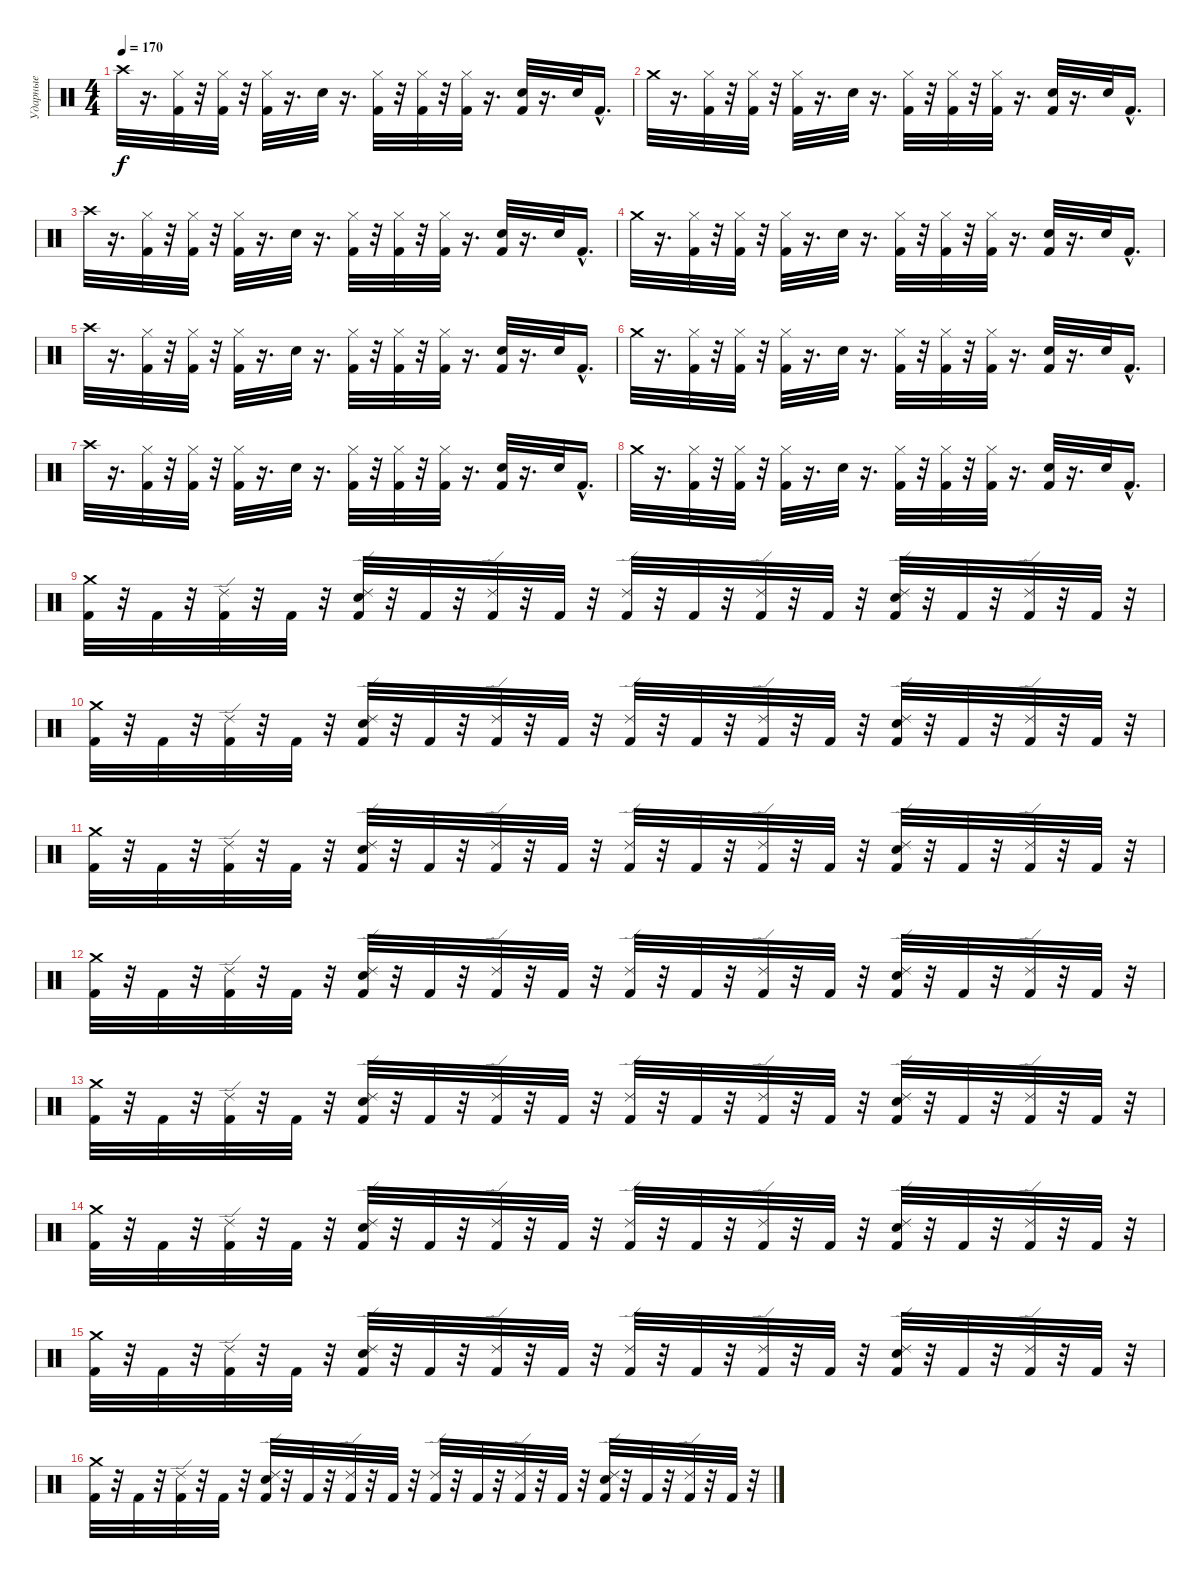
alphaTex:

\track ("Ударные" "Ударные") {instrument percussion}
\staff {score}
\articulation defaults
\ts (4 4)
\tempo 170
\clef neutral
\ks c "Crash high (hit)".32{dy f}
r.16{d} ("Hi-Hat (closed)" "Kick (hit) 2").32 r.32 ("Hi-Hat (closed)" "Kick (hit) 2").32 r.32 ("Hi-Hat (closed)" "Kick (hit) 2").32 r.16{d} "Electric Snare (hit)".32 r.16{d} ("Hi-Hat (closed)" "Kick (hit) 2").32 r.32 ("Hi-Hat (closed)" "Kick (hit) 2").32 r.32 ("Hi-Hat (closed)" "Kick (hit) 2").32 r.16{d} ("Electric Snare (hit)" "Kick (hit) 2").32 r.16{d} "Electric Snare (hit)".32 "Kick (hit) 2"{hac}.16{d} |
"Crash medium (hit)".32 r.16{d} ("Hi-Hat (closed)" "Kick (hit) 2").32 r.32 ("Hi-Hat (closed)" "Kick (hit) 2").32 r.32 ("Hi-Hat (closed)" "Kick (hit) 2").32 r.16{d} "Electric Snare (hit)".32 r.16{d} ("Hi-Hat (closed)" "Kick (hit) 2").32 r.32 ("Hi-Hat (closed)" "Kick (hit) 2").32 r.32 ("Hi-Hat (closed)" "Kick (hit) 2").32 r.16{d} ("Electric Snare (hit)" "Kick (hit) 2").32 r.16{d} "Electric Snare (hit)".32 "Kick (hit) 2"{hac}.16{d} |
"Crash high (hit)".32 r.16{d} ("Hi-Hat (closed)" "Kick (hit) 2").32 r.32 ("Hi-Hat (closed)" "Kick (hit) 2").32 r.32 ("Hi-Hat (closed)" "Kick (hit) 2").32 r.16{d} "Electric Snare (hit)".32 r.16{d} ("Hi-Hat (closed)" "Kick (hit) 2").32 r.32 ("Hi-Hat (closed)" "Kick (hit) 2").32 r.32 ("Hi-Hat (closed)" "Kick (hit) 2").32 r.16{d} ("Electric Snare (hit)" "Kick (hit) 2").32 r.16{d} "Electric Snare (hit)".32 "Kick (hit) 2"{hac}.16{d} |
"Crash medium (hit)".32 r.16{d} ("Hi-Hat (closed)" "Kick (hit) 2").32 r.32 ("Hi-Hat (closed)" "Kick (hit) 2").32 r.32 ("Hi-Hat (closed)" "Kick (hit) 2").32 r.16{d} "Electric Snare (hit)".32 r.16{d} ("Hi-Hat (closed)" "Kick (hit) 2").32 r.32 ("Hi-Hat (closed)" "Kick (hit) 2").32 r.32 ("Hi-Hat (closed)" "Kick (hit) 2").32 r.16{d} ("Electric Snare (hit)" "Kick (hit) 2").32 r.16{d} "Electric Snare (hit)".32 "Kick (hit) 2"{hac}.16{d} |
"Crash high (hit)".32 r.16{d} ("Hi-Hat (closed)" "Kick (hit) 2").32 r.32 ("Hi-Hat (closed)" "Kick (hit) 2").32 r.32 ("Hi-Hat (closed)" "Kick (hit) 2").32 r.16{d} "Electric Snare (hit)".32 r.16{d} ("Hi-Hat (closed)" "Kick (hit) 2").32 r.32 ("Hi-Hat (closed)" "Kick (hit) 2").32 r.32 ("Hi-Hat (closed)" "Kick (hit) 2").32 r.16{d} ("Electric Snare (hit)" "Kick (hit) 2").32 r.16{d} "Electric Snare (hit)".32 "Kick (hit) 2"{hac}.16{d} |
"Crash medium (hit)".32 r.16{d} ("Hi-Hat (closed)" "Kick (hit) 2").32 r.32 ("Hi-Hat (closed)" "Kick (hit) 2").32 r.32 ("Hi-Hat (closed)" "Kick (hit) 2").32 r.16{d} "Electric Snare (hit)".32 r.16{d} ("Hi-Hat (closed)" "Kick (hit) 2").32 r.32 ("Hi-Hat (closed)" "Kick (hit) 2").32 r.32 ("Hi-Hat (closed)" "Kick (hit) 2").32 r.16{d} ("Electric Snare (hit)" "Kick (hit) 2").32 r.16{d} "Electric Snare (hit)".32 "Kick (hit) 2"{hac}.16{d} |
"Crash high (hit)".32 r.16{d} ("Hi-Hat (closed)" "Kick (hit) 2").32 r.32 ("Hi-Hat (closed)" "Kick (hit) 2").32 r.32 ("Hi-Hat (closed)" "Kick (hit) 2").32 r.16{d} "Electric Snare (hit)".32 r.16{d} ("Hi-Hat (closed)" "Kick (hit) 2").32 r.32 ("Hi-Hat (closed)" "Kick (hit) 2").32 r.32 ("Hi-Hat (closed)" "Kick (hit) 2").32 r.16{d} ("Electric Snare (hit)" "Kick (hit) 2").32 r.16{d} "Electric Snare (hit)".32 "Kick (hit) 2"{hac}.16{d} |
"Crash medium (hit)".32 r.16{d} ("Hi-Hat (closed)" "Kick (hit) 2").32 r.32 ("Hi-Hat (closed)" "Kick (hit) 2").32 r.32 ("Hi-Hat (closed)" "Kick (hit) 2").32 r.16{d} "Electric Snare (hit)".32 r.16{d} ("Hi-Hat (closed)" "Kick (hit) 2").32 r.32 ("Hi-Hat (closed)" "Kick (hit) 2").32 r.32 ("Hi-Hat (closed)" "Kick (hit) 2").32 r.16{d} ("Electric Snare (hit)" "Kick (hit) 2").32 r.16{d} "Electric Snare (hit)".32 "Kick (hit) 2"{hac}.16{d} |
("Crash medium (hit)" "Kick (hit) 2").32 r.32 "Kick (hit) 2".32 r.32 ("Ride (edge) 2" "Kick (hit) 2").32 r.32 "Kick (hit) 2".32 r.32 ("Ride (edge) 2" "Electric Snare (hit)" "Kick (hit) 2").32 r.32 "Kick (hit) 2".32 r.32 ("Ride (edge) 2" "Kick (hit) 2").32 r.32 "Kick (hit) 2".32 r.32 ("Ride (edge) 2" "Kick (hit) 2").32 r.32 "Kick (hit) 2".32 r.32 ("Ride (edge) 2" "Kick (hit) 2").32 r.32 "Kick (hit) 2".32 r.32 ("Ride (edge) 2" "Electric Snare (hit)" "Kick (hit) 2").32 r.32 "Kick (hit) 2".32 r.32 ("Ride (edge) 2" "Kick (hit) 2").32 r.32 "Kick (hit) 2".32 r.32 |
("Crash medium (hit)" "Kick (hit) 2").32 r.32 "Kick (hit) 2".32 r.32 ("Ride (edge) 2" "Kick (hit) 2").32 r.32 "Kick (hit) 2".32 r.32 ("Ride (edge) 2" "Electric Snare (hit)" "Kick (hit) 2").32 r.32 "Kick (hit) 2".32 r.32 ("Ride (edge) 2" "Kick (hit) 2").32 r.32 "Kick (hit) 2".32 r.32 ("Ride (edge) 2" "Kick (hit) 2").32 r.32 "Kick (hit) 2".32 r.32 ("Ride (edge) 2" "Kick (hit) 2").32 r.32 "Kick (hit) 2".32 r.32 ("Ride (edge) 2" "Electric Snare (hit)" "Kick (hit) 2").32 r.32 "Kick (hit) 2".32 r.32 ("Ride (edge) 2" "Kick (hit) 2").32 r.32 "Kick (hit) 2".32 r.32 |
("Crash medium (hit)" "Kick (hit) 2").32 r.32 "Kick (hit) 2".32 r.32 ("Ride (edge) 2" "Kick (hit) 2").32 r.32 "Kick (hit) 2".32 r.32 ("Ride (edge) 2" "Electric Snare (hit)" "Kick (hit) 2").32 r.32 "Kick (hit) 2".32 r.32 ("Ride (edge) 2" "Kick (hit) 2").32 r.32 "Kick (hit) 2".32 r.32 ("Ride (edge) 2" "Kick (hit) 2").32 r.32 "Kick (hit) 2".32 r.32 ("Ride (edge) 2" "Kick (hit) 2").32 r.32 "Kick (hit) 2".32 r.32 ("Ride (edge) 2" "Electric Snare (hit)" "Kick (hit) 2").32 r.32 "Kick (hit) 2".32 r.32 ("Ride (edge) 2" "Kick (hit) 2").32 r.32 "Kick (hit) 2".32 r.32 |
("Crash medium (hit)" "Kick (hit) 2").32 r.32 "Kick (hit) 2".32 r.32 ("Ride (edge) 2" "Kick (hit) 2").32 r.32 "Kick (hit) 2".32 r.32 ("Ride (edge) 2" "Electric Snare (hit)" "Kick (hit) 2").32 r.32 "Kick (hit) 2".32 r.32 ("Ride (edge) 2" "Kick (hit) 2").32 r.32 "Kick (hit) 2".32 r.32 ("Ride (edge) 2" "Kick (hit) 2").32 r.32 "Kick (hit) 2".32 r.32 ("Ride (edge) 2" "Kick (hit) 2").32 r.32 "Kick (hit) 2".32 r.32 ("Ride (edge) 2" "Electric Snare (hit)" "Kick (hit) 2").32 r.32 "Kick (hit) 2".32 r.32 ("Ride (edge) 2" "Kick (hit) 2").32 r.32 "Kick (hit) 2".32 r.32 |
("Crash medium (hit)" "Kick (hit) 2").32 r.32 "Kick (hit) 2".32 r.32 ("Ride (edge) 2" "Kick (hit) 2").32 r.32 "Kick (hit) 2".32 r.32 ("Ride (edge) 2" "Electric Snare (hit)" "Kick (hit) 2").32 r.32 "Kick (hit) 2".32 r.32 ("Ride (edge) 2" "Kick (hit) 2").32 r.32 "Kick (hit) 2".32 r.32 ("Ride (edge) 2" "Kick (hit) 2").32 r.32 "Kick (hit) 2".32 r.32 ("Ride (edge) 2" "Kick (hit) 2").32 r.32 "Kick (hit) 2".32 r.32 ("Ride (edge) 2" "Electric Snare (hit)" "Kick (hit) 2").32 r.32 "Kick (hit) 2".32 r.32 ("Ride (edge) 2" "Kick (hit) 2").32 r.32 "Kick (hit) 2".32 r.32 |
("Crash medium (hit)" "Kick (hit) 2").32 r.32 "Kick (hit) 2".32 r.32 ("Ride (edge) 2" "Kick (hit) 2").32 r.32 "Kick (hit) 2".32 r.32 ("Ride (edge) 2" "Electric Snare (hit)" "Kick (hit) 2").32 r.32 "Kick (hit) 2".32 r.32 ("Ride (edge) 2" "Kick (hit) 2").32 r.32 "Kick (hit) 2".32 r.32 ("Ride (edge) 2" "Kick (hit) 2").32 r.32 "Kick (hit) 2".32 r.32 ("Ride (edge) 2" "Kick (hit) 2").32 r.32 "Kick (hit) 2".32 r.32 ("Ride (edge) 2" "Electric Snare (hit)" "Kick (hit) 2").32 r.32 "Kick (hit) 2".32 r.32 ("Ride (edge) 2" "Kick (hit) 2").32 r.32 "Kick (hit) 2".32 r.32 |
("Crash medium (hit)" "Kick (hit) 2").32 r.32 "Kick (hit) 2".32 r.32 ("Ride (edge) 2" "Kick (hit) 2").32 r.32 "Kick (hit) 2".32 r.32 ("Ride (edge) 2" "Electric Snare (hit)" "Kick (hit) 2").32 r.32 "Kick (hit) 2".32 r.32 ("Ride (edge) 2" "Kick (hit) 2").32 r.32 "Kick (hit) 2".32 r.32 ("Ride (edge) 2" "Kick (hit) 2").32 r.32 "Kick (hit) 2".32 r.32 ("Ride (edge) 2" "Kick (hit) 2").32 r.32 "Kick (hit) 2".32 r.32 ("Ride (edge) 2" "Electric Snare (hit)" "Kick (hit) 2").32 r.32 "Kick (hit) 2".32 r.32 ("Ride (edge) 2" "Kick (hit) 2").32 r.32 "Kick (hit) 2".32 r.32 |
("Crash medium (hit)" "Kick (hit) 2").32 r.32 "Kick (hit) 2".32 r.32 ("Ride (edge) 2" "Kick (hit) 2").32 r.32 "Kick (hit) 2".32 r.32 ("Ride (edge) 2" "Electric Snare (hit)" "Kick (hit) 2").32 r.32 "Kick (hit) 2".32 r.32 ("Ride (edge) 2" "Kick (hit) 2").32 r.32 "Kick (hit) 2".32 r.32 ("Ride (edge) 2" "Kick (hit) 2").32 r.32 "Kick (hit) 2".32 r.32 ("Ride (edge) 2" "Kick (hit) 2").32 r.32 "Kick (hit) 2".32 r.32 ("Ride (edge) 2" "Electric Snare (hit)" "Kick (hit) 2").32 r.32 "Kick (hit) 2".32 r.32 ("Ride (edge) 2" "Kick (hit) 2").32 r.32 "Kick (hit) 2".32 r.32
